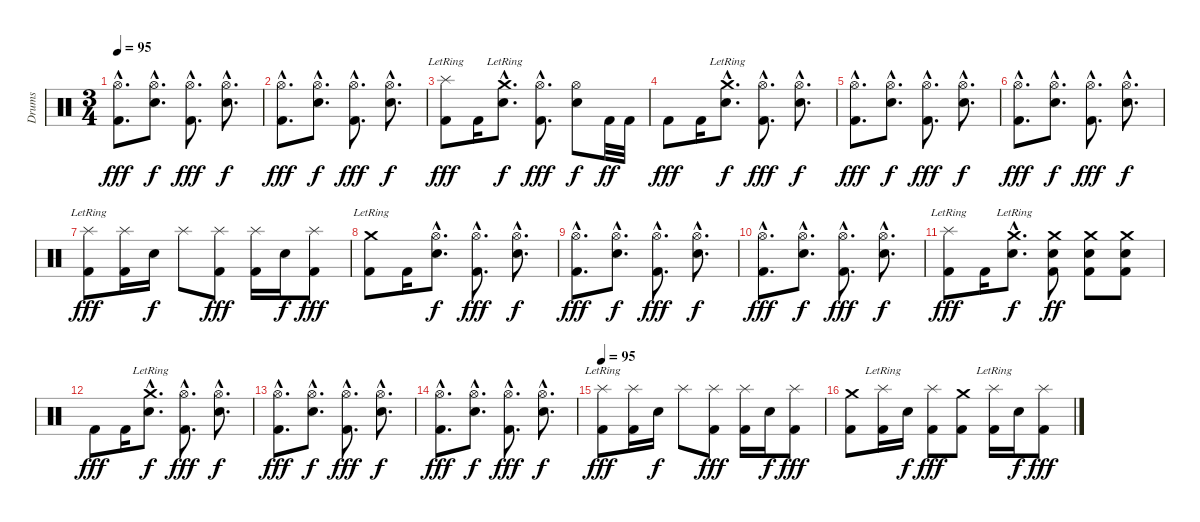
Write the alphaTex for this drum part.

\track ("Drums" "Drums") {instrument percussion}
\staff {score}
\articulation defaults
\ts (3 4)
\tempo 95
\clef neutral
\ks c
("Hi-Hat (open)"{hac} "Kick (hit) 2"{hac}).8{d dy fff} ("Hi-Hat (open)"{hac} "Snare (hit) 2"{hac}).8{d dy f} ("Hi-Hat (open)"{hac} "Kick (hit) 2"{hac}).8{d dy fff} ("Hi-Hat (open)"{hac} "Snare (hit) 2"{hac}).8{d dy f} |
("Hi-Hat (open)"{hac} "Kick (hit) 2"{hac}).8{d dy fff} ("Hi-Hat (open)"{hac} "Snare (hit) 2"{hac}).8{d dy f} ("Hi-Hat (open)"{hac} "Kick (hit) 2"{hac}).8{d dy fff} ("Hi-Hat (open)"{hac} "Snare (hit) 2"{hac}).8{d dy f} |
("Splash (hit)"{lr} "Kick (hit) 2").8{dy fff} "Kick (hit) 2".16 ("Crash medium (hit)"{hac lr} "Snare (hit) 2"{hac}).8{d dy f} ("Hi-Hat (open)"{hac} "Kick (hit) 2"{hac}).8{d dy fff} ("Hi-Hat (open)" "Snare (hit) 2").8{dy f} "Kick (hit) 2".32{dy ff} "Kick (hit) 2".32 |
"Kick (hit) 2".8{dy fff} "Kick (hit) 2".16 ("Crash medium (hit)"{hac lr} "Snare (hit) 2"{hac}).8{d dy f} ("Hi-Hat (open)"{hac} "Kick (hit) 2"{hac}).8{d dy fff} ("Hi-Hat (open)"{hac} "Snare (hit) 2"{hac}).8{d dy f} |
("Hi-Hat (open)"{hac} "Kick (hit) 2"{hac}).8{d dy fff} ("Hi-Hat (open)"{hac} "Snare (hit) 2"{hac}).8{d dy f} ("Hi-Hat (open)"{hac} "Kick (hit) 2"{hac}).8{d dy fff} ("Hi-Hat (open)"{hac} "Snare (hit) 2"{hac}).8{d dy f} |
("Hi-Hat (open)"{hac} "Kick (hit) 2"{hac}).8{d dy fff} ("Hi-Hat (open)"{hac} "Snare (hit) 2"{hac}).8{d dy f} ("Hi-Hat (open)"{hac} "Kick (hit) 2"{hac}).8{d dy fff} ("Hi-Hat (open)"{hac} "Snare (hit) 2"{hac}).8{d dy f} |
("Splash (hit)"{lr} "Kick (hit) 2").8{dy fff} ("Splash (hit)" "Kick (hit) 2").16 "Snare (hit) 2".16{dy f} "Splash (hit)".8 ("Splash (hit)" "Kick (hit) 2").8{dy fff} ("Splash (hit)" "Kick (hit) 2").16 "Snare (hit) 2".16{dy f} ("Splash (hit)" "Kick (hit) 2").8{dy fff} |
("Crash medium (hit)"{lr} "Kick (hit) 2").8 "Kick (hit) 2".16 ("Hi-Hat (open)"{hac} "Snare (hit) 2"{hac}).8{d dy f} ("Hi-Hat (open)"{hac} "Kick (hit) 2"{hac}).8{d dy fff} ("Hi-Hat (open)"{hac} "Snare (hit) 2"{hac}).8{d dy f} |
("Hi-Hat (open)"{hac} "Kick (hit) 2"{hac}).8{d dy fff} ("Hi-Hat (open)"{hac} "Snare (hit) 2"{hac}).8{d dy f} ("Hi-Hat (open)"{hac} "Kick (hit) 2"{hac}).8{d dy fff} ("Hi-Hat (open)"{hac} "Snare (hit) 2"{hac}).8{d dy f} |
("Hi-Hat (open)"{hac} "Kick (hit) 2"{hac}).8{d dy fff} ("Hi-Hat (open)"{hac} "Snare (hit) 2"{hac}).8{d dy f} ("Hi-Hat (open)"{hac} "Kick (hit) 2"{hac}).8{d dy fff} ("Hi-Hat (open)"{hac} "Snare (hit) 2"{hac}).8{d dy f} |
("Splash (hit)"{lr} "Kick (hit) 2").8{dy fff} "Kick (hit) 2".16 ("Crash medium (hit)"{hac lr} "Snare (hit) 2"{hac}).8{d dy f} ("Crash medium (hit)" "Snare (hit) 2" "Kick (hit) 2").8{dy ff} ("Crash medium (hit)" "Snare (hit) 2" "Kick (hit) 2").8 ("Crash medium (hit)" "Snare (hit) 2" "Kick (hit) 2").8 |
"Kick (hit) 2".8{dy fff} "Kick (hit) 2".16 ("Crash medium (hit)"{hac lr} "Snare (hit) 2"{hac}).8{d dy f} ("Hi-Hat (open)"{hac} "Kick (hit) 2"{hac}).8{d dy fff} ("Hi-Hat (open)"{hac} "Snare (hit) 2"{hac}).8{d dy f} |
("Hi-Hat (open)"{hac} "Kick (hit) 2"{hac}).8{d dy fff} ("Hi-Hat (open)"{hac} "Snare (hit) 2"{hac}).8{d dy f} ("Hi-Hat (open)"{hac} "Kick (hit) 2"{hac}).8{d dy fff} ("Hi-Hat (open)"{hac} "Snare (hit) 2"{hac}).8{d dy f} |
("Hi-Hat (open)"{hac} "Kick (hit) 2"{hac}).8{d dy fff} ("Hi-Hat (open)"{hac} "Snare (hit) 2"{hac}).8{d dy f} ("Hi-Hat (open)"{hac} "Kick (hit) 2"{hac}).8{d dy fff} ("Hi-Hat (open)"{hac} "Snare (hit) 2"{hac}).8{d dy f} |
\tempo 95
("Splash (hit)"{lr} "Kick (hit) 2").8{dy fff} ("Splash (hit)" "Kick (hit) 2").16 "Snare (hit) 2".16{dy f} "Splash (hit)".8 ("Splash (hit)" "Kick (hit) 2").8{dy fff} ("Splash (hit)" "Kick (hit) 2").16 "Snare (hit) 2".16{dy f} ("Splash (hit)" "Kick (hit) 2").8{dy fff} |
("Crash medium (hit)" "Kick (hit) 2").8 ("Splash (hit)"{lr} "Kick (hit) 2").16 "Snare (hit) 2".16{dy f} ("Splash (hit)" "Kick (hit) 2").8{dy fff} ("Crash medium (hit)" "Kick (hit) 2").8 ("Splash (hit)"{lr} "Kick (hit) 2").16 "Snare (hit) 2".16{dy f} ("Splash (hit)" "Kick (hit) 2").8{dy fff}
